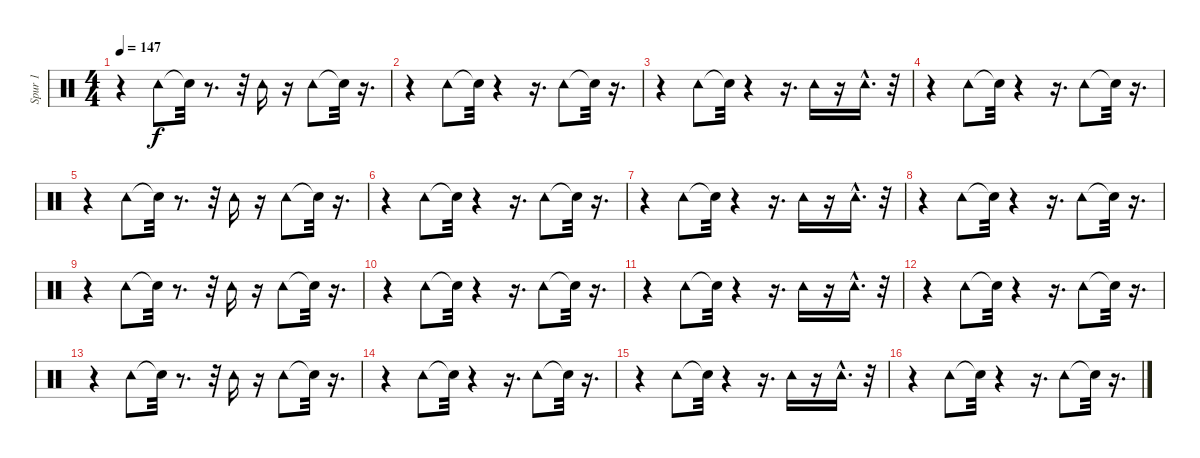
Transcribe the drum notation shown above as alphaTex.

\track ("Spur 1" "Spur 1") {instrument percussion}
\staff {score}
\articulation defaults
\ts (4 4)
\tempo 147
\clef neutral
\ks c
r.4{dy f} "Tambourine (hit)".8 "Snare (hit)"{t}.32 r.8{d} r.32 "Tambourine (hit)".16 r.16 "Tambourine (hit)".8 "Snare (hit)"{t}.32 r.16{d} |
r.4 "Tambourine (hit)".8 "Snare (hit)"{t}.32 r.4 r.16{d} "Tambourine (hit)".8 "Snare (hit)"{t}.32 r.16{d} |
r.4 "Tambourine (hit)".8 "Snare (hit)"{t}.32 r.4 r.16{d} "Tambourine (hit)".16 r.16 "Tambourine (hit)"{hac}.16{d} r.32 |
r.4 "Tambourine (hit)".8 "Snare (hit)"{t}.32 r.4 r.16{d} "Tambourine (hit)".8 "Snare (hit)"{t}.32 r.16{d} |
r.4 "Tambourine (hit)".8 "Snare (hit)"{t}.32 r.8{d} r.32 "Tambourine (hit)".16 r.16 "Tambourine (hit)".8 "Snare (hit)"{t}.32 r.16{d} |
r.4 "Tambourine (hit)".8 "Snare (hit)"{t}.32 r.4 r.16{d} "Tambourine (hit)".8 "Snare (hit)"{t}.32 r.16{d} |
r.4 "Tambourine (hit)".8 "Snare (hit)"{t}.32 r.4 r.16{d} "Tambourine (hit)".16 r.16 "Tambourine (hit)"{hac}.16{d} r.32 |
r.4 "Tambourine (hit)".8 "Snare (hit)"{t}.32 r.4 r.16{d} "Tambourine (hit)".8 "Snare (hit)"{t}.32 r.16{d} |
r.4 "Tambourine (hit)".8 "Snare (hit)"{t}.32 r.8{d} r.32 "Tambourine (hit)".16 r.16 "Tambourine (hit)".8 "Snare (hit)"{t}.32 r.16{d} |
r.4 "Tambourine (hit)".8 "Snare (hit)"{t}.32 r.4 r.16{d} "Tambourine (hit)".8 "Snare (hit)"{t}.32 r.16{d} |
r.4 "Tambourine (hit)".8 "Snare (hit)"{t}.32 r.4 r.16{d} "Tambourine (hit)".16 r.16 "Tambourine (hit)"{hac}.16{d} r.32 |
r.4 "Tambourine (hit)".8 "Snare (hit)"{t}.32 r.4 r.16{d} "Tambourine (hit)".8 "Snare (hit)"{t}.32 r.16{d} |
r.4 "Tambourine (hit)".8 "Snare (hit)"{t}.32 r.8{d} r.32 "Tambourine (hit)".16 r.16 "Tambourine (hit)".8 "Snare (hit)"{t}.32 r.16{d} |
r.4 "Tambourine (hit)".8 "Snare (hit)"{t}.32 r.4 r.16{d} "Tambourine (hit)".8 "Snare (hit)"{t}.32 r.16{d} |
r.4 "Tambourine (hit)".8 "Snare (hit)"{t}.32 r.4 r.16{d} "Tambourine (hit)".16 r.16 "Tambourine (hit)"{hac}.16{d} r.32 |
r.4 "Tambourine (hit)".8 "Snare (hit)"{t}.32 r.4 r.16{d} "Tambourine (hit)".8 "Snare (hit)"{t}.32 r.16{d}
